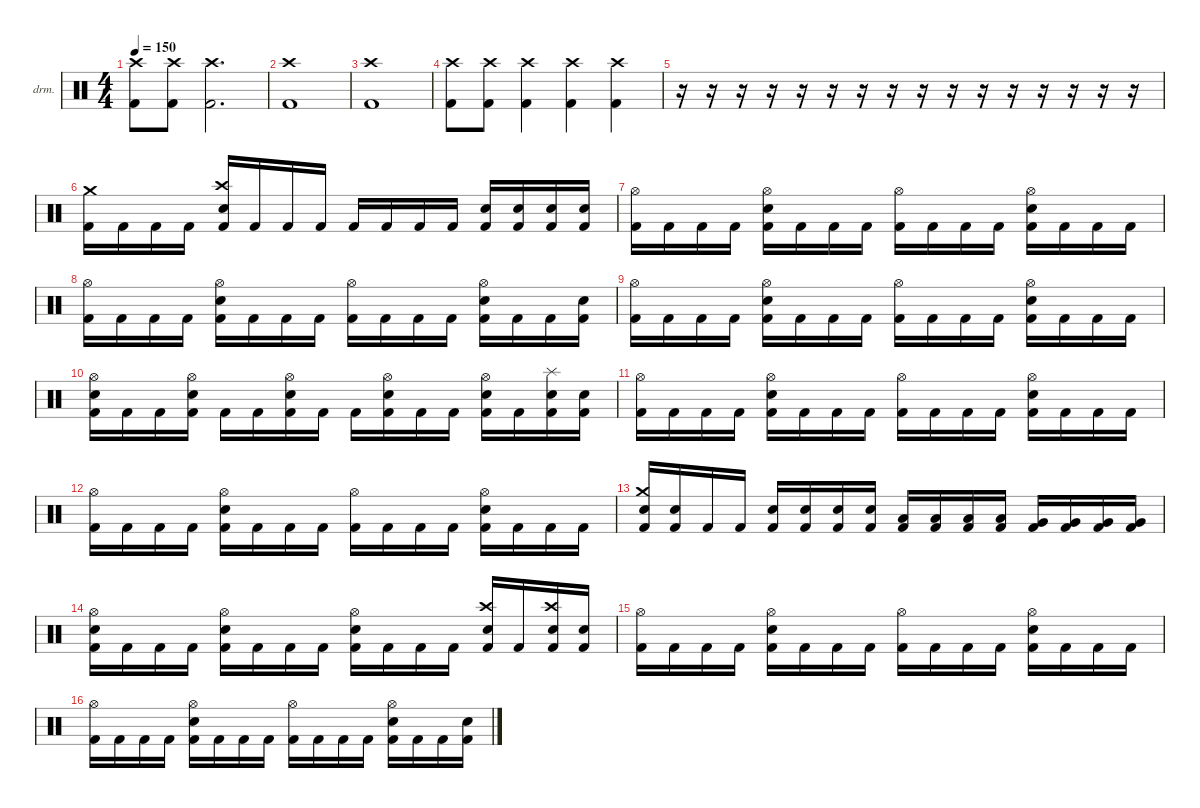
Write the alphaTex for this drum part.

\defaultSystemsLayout 4
\hideDynamics
\bracketExtendMode nobrackets
\firstSystemTrackNameOrientation horizontal
\otherSystemsTrackNameOrientation horizontal
\track ("Drumkit" "drm.") {instrument percussion}
\staff {score}
\articulation defaults
\ts (4 4)
\tempo 150
\clef neutral
\ks c
("Kick (hit) 2" "Crash high (hit)").8{dy f} ("Kick (hit) 2" "Crash high (hit)").8 ("Kick (hit) 2" "Crash high (hit)").2{d} |
("Kick (hit) 2" "Crash high (hit)").1 |
("Kick (hit) 2" "Crash high (hit)").1 |
("Crash high (hit)" "Kick (hit) 2").8 ("Crash high (hit)" "Kick (hit) 2").8 ("Crash high (hit)" "Kick (hit) 2").4 ("Crash high (hit)" "Kick (hit) 2").4 ("Crash high (hit)" "Kick (hit) 2").4 |
r.16 r.16 r.16 r.16 r.16 r.16 r.16 r.16 r.16 r.16 r.16 r.16 r.16 r.16 r.16 r.16 |
("Crash medium (hit)" "Kick (hit) 2").16 "Kick (hit) 2".16 "Kick (hit) 2".16 "Kick (hit) 2".16 ("Crash high (hit)" "Snare (hit) 2" "Kick (hit) 2").16 "Kick (hit) 2".16 "Kick (hit) 2".16 "Kick (hit) 2".16 "Kick (hit) 2".16 "Kick (hit) 2".16 "Kick (hit) 2".16 "Kick (hit) 2".16 ("Snare (hit) 2" "Kick (hit) 2").16 ("Snare (hit) 2" "Kick (hit) 2").16 ("Snare (hit) 2" "Kick (hit) 2").16 ("Snare (hit) 2" "Kick (hit) 2").16 |
("Hi-Hat (open)" "Kick (hit) 2").16{dy ff} "Kick (hit) 2".16 "Kick (hit) 2".16 "Kick (hit) 2".16 ("Hi-Hat (open)" "Snare (hit) 2" "Kick (hit) 2").16 "Kick (hit) 2".16 "Kick (hit) 2".16 "Kick (hit) 2".16 ("Hi-Hat (open)" "Kick (hit) 2").16 "Kick (hit) 2".16 "Kick (hit) 2".16 "Kick (hit) 2".16 ("Hi-Hat (open)" "Snare (hit) 2" "Kick (hit) 2").16 "Kick (hit) 2".16 "Kick (hit) 2".16 "Kick (hit) 2".16 |
("Hi-Hat (open)" "Kick (hit) 2").16 "Kick (hit) 2".16 "Kick (hit) 2".16 "Kick (hit) 2".16 ("Hi-Hat (open)" "Snare (hit) 2" "Kick (hit) 2").16 "Kick (hit) 2".16 "Kick (hit) 2".16 "Kick (hit) 2".16 ("Hi-Hat (open)" "Kick (hit) 2").16 "Kick (hit) 2".16 "Kick (hit) 2".16 "Kick (hit) 2".16 ("Hi-Hat (open)" "Snare (hit) 2" "Kick (hit) 2").16 "Kick (hit) 2".16 "Kick (hit) 2".16 ("Snare (hit) 2" "Kick (hit) 2").16 |
("Hi-Hat (open)" "Kick (hit) 2").16 "Kick (hit) 2".16 "Kick (hit) 2".16 "Kick (hit) 2".16 ("Hi-Hat (open)" "Snare (hit) 2" "Kick (hit) 2").16 "Kick (hit) 2".16 "Kick (hit) 2".16 "Kick (hit) 2".16 ("Hi-Hat (open)" "Kick (hit) 2").16 "Kick (hit) 2".16 "Kick (hit) 2".16 "Kick (hit) 2".16 ("Hi-Hat (open)" "Snare (hit) 2" "Kick (hit) 2").16 "Kick (hit) 2".16 "Kick (hit) 2".16 "Kick (hit) 2".16 |
("Hi-Hat (open)" "Snare (hit) 2" "Kick (hit) 2").16 "Kick (hit) 2".16 "Kick (hit) 2".16 ("Hi-Hat (open)" "Snare (hit) 2" "Kick (hit) 2").16 "Kick (hit) 2".16 "Kick (hit) 2".16 ("Hi-Hat (open)" "Snare (hit) 2" "Kick (hit) 2").16 "Kick (hit) 2".16 "Kick (hit) 2".16 ("Hi-Hat (open)" "Snare (hit) 2" "Kick (hit) 2").16 "Kick (hit) 2".16 "Kick (hit) 2".16 ("Hi-Hat (open)" "Snare (hit) 2" "Kick (hit) 2").16 "Kick (hit) 2".16 ("Splash (hit)" "Snare (hit) 2" "Kick (hit) 2").16 ("Snare (hit) 2" "Kick (hit) 2").16 |
("Hi-Hat (open)" "Kick (hit) 2").16 "Kick (hit) 2".16 "Kick (hit) 2".16 "Kick (hit) 2".16 ("Hi-Hat (open)" "Snare (hit) 2" "Kick (hit) 2").16 "Kick (hit) 2".16 "Kick (hit) 2".16 "Kick (hit) 2".16 ("Hi-Hat (open)" "Kick (hit) 2").16 "Kick (hit) 2".16 "Kick (hit) 2".16 "Kick (hit) 2".16 ("Hi-Hat (open)" "Snare (hit) 2" "Kick (hit) 2").16 "Kick (hit) 2".16 "Kick (hit) 2".16 "Kick (hit) 2".16 |
("Hi-Hat (open)" "Kick (hit) 2").16 "Kick (hit) 2".16 "Kick (hit) 2".16 "Kick (hit) 2".16 ("Hi-Hat (open)" "Snare (hit) 2" "Kick (hit) 2").16 "Kick (hit) 2".16 "Kick (hit) 2".16 "Kick (hit) 2".16 ("Hi-Hat (open)" "Kick (hit) 2").16 "Kick (hit) 2".16 "Kick (hit) 2".16 "Kick (hit) 2".16 ("Hi-Hat (open)" "Snare (hit) 2" "Kick (hit) 2").16 "Kick (hit) 2".16 "Kick (hit) 2".16 "Kick (hit) 2".16 |
("Crash medium (hit)" "Snare (hit) 2" "Kick (hit) 2").16{dy mf} ("Snare (hit) 2" "Kick (hit) 2").16 "Kick (hit) 2".16 "Kick (hit) 2".16 ("Snare (hit) 2" "Kick (hit) 2").16 ("Snare (hit) 2" "Kick (hit) 2").16 ("Snare (hit) 2" "Kick (hit) 2").16 ("Snare (hit) 2" "Kick (hit) 2").16 ("Low Tom (hit)" "Kick (hit) 2").16 ("Low Tom (hit)" "Kick (hit) 2").16 ("Low Tom (hit)" "Kick (hit) 2").16 ("Low Tom (hit)" "Kick (hit) 2").16 ("Very Low Tom (hit)" "Kick (hit) 2").16 ("Very Low Tom (hit)" "Kick (hit) 2").16 ("Very Low Tom (hit)" "Kick (hit) 2").16 ("Very Low Tom (hit)" "Kick (hit) 2").16 |
("Hi-Hat (open)" "Snare (hit) 2" "Kick (hit) 2").16 "Kick (hit) 2".16 "Kick (hit) 2".16 "Kick (hit) 2".16 ("Hi-Hat (open)" "Snare (hit) 2" "Kick (hit) 2").16 "Kick (hit) 2".16 "Kick (hit) 2".16 "Kick (hit) 2".16 ("Hi-Hat (open)" "Snare (hit) 2" "Kick (hit) 2").16 "Kick (hit) 2".16 "Kick (hit) 2".16 "Kick (hit) 2".16 ("Crash high (hit)" "Snare (hit) 2" "Kick (hit) 2").16 "Kick (hit) 2".16 ("Crash high (hit)" "Snare (hit) 2" "Kick (hit) 2").16 ("Snare (hit) 2" "Kick (hit) 2").16 |
("Hi-Hat (open)" "Kick (hit) 2").16{dy ff} "Kick (hit) 2".16 "Kick (hit) 2".16 "Kick (hit) 2".16 ("Hi-Hat (open)" "Snare (hit) 2" "Kick (hit) 2").16 "Kick (hit) 2".16 "Kick (hit) 2".16 "Kick (hit) 2".16 ("Hi-Hat (open)" "Kick (hit) 2").16 "Kick (hit) 2".16 "Kick (hit) 2".16 "Kick (hit) 2".16 ("Hi-Hat (open)" "Snare (hit) 2" "Kick (hit) 2").16 "Kick (hit) 2".16 "Kick (hit) 2".16 "Kick (hit) 2".16 |
("Hi-Hat (open)" "Kick (hit) 2").16 "Kick (hit) 2".16 "Kick (hit) 2".16 "Kick (hit) 2".16 ("Hi-Hat (open)" "Snare (hit) 2" "Kick (hit) 2").16 "Kick (hit) 2".16 "Kick (hit) 2".16 "Kick (hit) 2".16 ("Hi-Hat (open)" "Kick (hit) 2").16 "Kick (hit) 2".16 "Kick (hit) 2".16 "Kick (hit) 2".16 ("Hi-Hat (open)" "Snare (hit) 2" "Kick (hit) 2").16 "Kick (hit) 2".16 "Kick (hit) 2".16 ("Snare (hit) 2" "Kick (hit) 2").16
